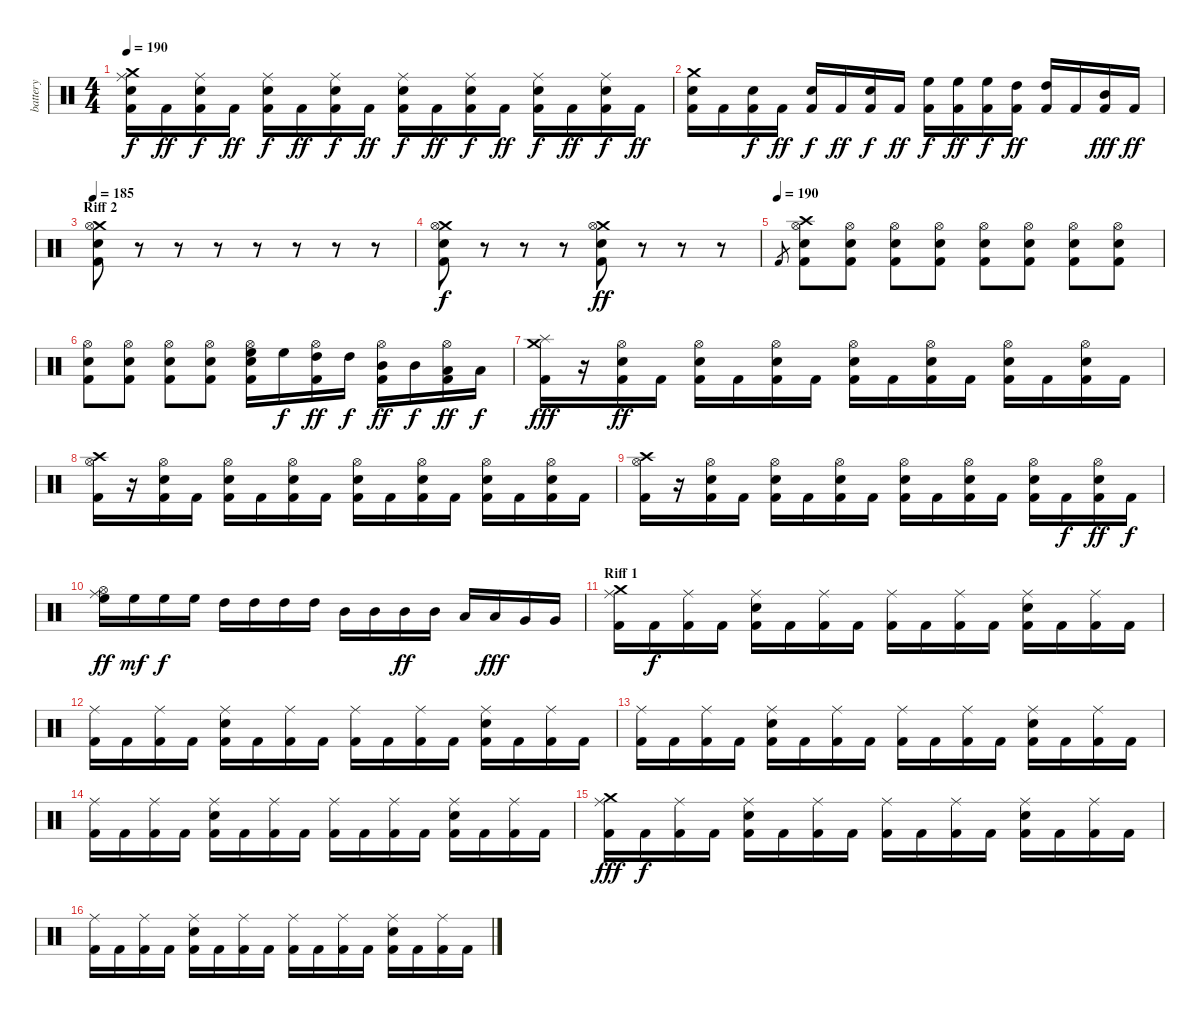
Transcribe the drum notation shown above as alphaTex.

\track ("battery" "battery") {instrument percussion}
\staff {score}
\articulation defaults
\ts (4 4)
\tempo 190
\clef neutral
\ks c
("Kick (hit) 2" "Electric Snare (hit)" "Crash medium (hit)" "Ride (middle)").16{dy f} "Kick (hit) 2".16{dy ff} ("Kick (hit) 2" "Electric Snare (hit)" "Ride (middle)").16{dy f} "Kick (hit) 2".16{dy ff} ("Kick (hit) 2" "Electric Snare (hit)" "Ride (middle)").16{dy f} "Kick (hit) 2".16{dy ff} ("Kick (hit) 2" "Electric Snare (hit)" "Ride (middle)").16{dy f} "Kick (hit) 2".16{dy ff} ("Kick (hit) 2" "Electric Snare (hit)" "Ride (middle)").16{dy f} "Kick (hit) 2".16{dy ff} ("Kick (hit) 2" "Electric Snare (hit)" "Ride (middle)").16{dy f} "Kick (hit) 2".16{dy ff} ("Kick (hit) 2" "Electric Snare (hit)" "Ride (middle)").16{dy f} "Kick (hit) 2".16{dy ff} ("Kick (hit) 2" "Electric Snare (hit)" "Ride (middle)").16{dy f} "Kick (hit) 2".16{dy ff} |
("Kick (hit) 2" "Electric Snare (hit)" "Crash medium (hit)").16 "Kick (hit) 2".16 ("Kick (hit) 2" "Electric Snare (hit)").16{dy f} "Kick (hit) 2".16{dy ff} ("Kick (hit) 2" "Electric Snare (hit)").16{dy f} "Kick (hit) 2".16{dy ff} ("Kick (hit) 2" "Electric Snare (hit)").16{dy f} "Kick (hit) 2".16{dy ff} ("Kick (hit) 2" "High Floor Tom (hit)").16{dy f} ("Kick (hit) 2" "High Floor Tom (hit)").16{dy ff} ("Kick (hit) 2" "High Floor Tom (hit)").16{dy f} ("Kick (hit) 2" "High Tom (hit)").16{dy ff} ("Kick (hit) 2" "High Tom (hit)").16 "Kick (hit) 2".16 ("Kick (hit) 2" "Mid Tom (hit)").16{dy fff} "Kick (hit) 2".16{dy ff} |
\section ("" "Riff 2")
\tempo 185
("Kick (hit) 2" "Electric Snare (hit)" "Crash medium (hit)" "Hi-Hat (open)").8 r.8 r.8 r.8 r.8 r.8 r.8 r.8 |
("Kick (hit) 2" "Electric Snare (hit)" "Crash medium (hit)" "Hi-Hat (open)").8{dy f} r.8 r.8 r.8 ("Kick (hit) 2" "Electric Snare (hit)" "Crash medium (hit)" "Hi-Hat (open)").8{dy ff} r.8 r.8 r.8 |
\tempo (190)
"Kick (hit) 2".8{gr} ("Kick (hit) 2" "Electric Snare (hit)" "Crash high (hit)" "Hi-Hat (open)").8 ("Kick (hit) 2" "Electric Snare (hit)" "Hi-Hat (open)").8 ("Kick (hit) 2" "Electric Snare (hit)" "Hi-Hat (open)").8 ("Kick (hit) 2" "Electric Snare (hit)" "Hi-Hat (open)").8 ("Kick (hit) 2" "Electric Snare (hit)" "Hi-Hat (open)").8 ("Kick (hit) 2" "Electric Snare (hit)" "Hi-Hat (open)").8 ("Kick (hit) 2" "Electric Snare (hit)" "Hi-Hat (open)").8 ("Kick (hit) 2" "Electric Snare (hit)" "Hi-Hat (open)").8 |
("Kick (hit) 2" "Electric Snare (hit)" "Hi-Hat (open)").8 ("Kick (hit) 2" "Electric Snare (hit)" "Hi-Hat (open)").8 ("Kick (hit) 2" "Electric Snare (hit)" "Hi-Hat (open)").8 ("Kick (hit) 2" "Electric Snare (hit)" "Hi-Hat (open)").8 ("Kick (hit) 2" "Electric Snare (hit)" "Hi-Hat (open)" "High Floor Tom (hit)").16 "High Floor Tom (hit)".16{dy f} ("Kick (hit) 2" "Hi-Hat (open)" "High Tom (hit)").16{dy ff} "High Tom (hit)".16{dy f} ("Kick (hit) 2" "Hi-Hat (open)" "Mid Tom (hit)").16{dy ff} "Mid Tom (hit)".16{dy f} ("Kick (hit) 2" "Hi-Hat (open)" "Low Tom (hit)").16{dy ff} "Low Tom (hit)".16{dy f} |
("Kick (hit) 2" "Crash medium (hit)" "Splash (hit)").16{dy fff} r.16 ("Kick (hit) 2" "Electric Snare (hit)" "Hi-Hat (open)").16{dy ff} "Kick (hit) 2".16 ("Kick (hit) 2" "Electric Snare (hit)" "Hi-Hat (open)").16 "Kick (hit) 2".16 ("Kick (hit) 2" "Electric Snare (hit)" "Hi-Hat (open)").16 "Kick (hit) 2".16 ("Kick (hit) 2" "Electric Snare (hit)" "Hi-Hat (open)").16 "Kick (hit) 2".16 ("Kick (hit) 2" "Electric Snare (hit)" "Hi-Hat (open)").16 "Kick (hit) 2".16 ("Kick (hit) 2" "Electric Snare (hit)" "Hi-Hat (open)").16 "Kick (hit) 2".16 ("Kick (hit) 2" "Electric Snare (hit)" "Hi-Hat (open)").16 "Kick (hit) 2".16 |
("Kick (hit) 2" "Crash high (hit)" "Hi-Hat (open)").16 r.16 ("Kick (hit) 2" "Electric Snare (hit)" "Hi-Hat (open)").16 "Kick (hit) 2".16 ("Kick (hit) 2" "Electric Snare (hit)" "Hi-Hat (open)").16 "Kick (hit) 2".16 ("Kick (hit) 2" "Electric Snare (hit)" "Hi-Hat (open)").16 "Kick (hit) 2".16 ("Kick (hit) 2" "Electric Snare (hit)" "Hi-Hat (open)").16 "Kick (hit) 2".16 ("Kick (hit) 2" "Electric Snare (hit)" "Hi-Hat (open)").16 "Kick (hit) 2".16 ("Kick (hit) 2" "Electric Snare (hit)" "Hi-Hat (open)").16 "Kick (hit) 2".16 ("Kick (hit) 2" "Electric Snare (hit)" "Hi-Hat (open)").16 "Kick (hit) 2".16 |
("Kick (hit) 2" "Crash high (hit)" "Hi-Hat (open)").16 r.16 ("Kick (hit) 2" "Electric Snare (hit)" "Hi-Hat (open)").16 "Kick (hit) 2".16 ("Kick (hit) 2" "Electric Snare (hit)" "Hi-Hat (open)").16 "Kick (hit) 2".16 ("Kick (hit) 2" "Electric Snare (hit)" "Hi-Hat (open)").16 "Kick (hit) 2".16 ("Kick (hit) 2" "Electric Snare (hit)" "Hi-Hat (open)").16 "Kick (hit) 2".16 ("Kick (hit) 2" "Electric Snare (hit)" "Hi-Hat (open)").16 "Kick (hit) 2".16 ("Kick (hit) 2" "Electric Snare (hit)" "Hi-Hat (open)").16 "Kick (hit) 2".16{dy f} ("Kick (hit) 2" "Electric Snare (hit)" "Hi-Hat (open)").16{dy ff} "Kick (hit) 2".16{dy f} |
("High Floor Tom (hit)" "Ride (middle)" "Hi-Hat (open)").16{dy ff} "High Floor Tom (hit)".16{dy mf} "High Floor Tom (hit)".16{dy f} "High Floor Tom (hit)".16 "High Tom (hit)".16 "High Tom (hit)".16 "High Tom (hit)".16 "High Tom (hit)".16 "Mid Tom (hit)".16 "Mid Tom (hit)".16 "Mid Tom (hit)".16{dy ff} "Mid Tom (hit)".16 "Low Tom (hit)".16 "Low Tom (hit)".16{dy fff} "Very Low Tom (hit)".16 "Very Low Tom (hit)".16 |
\section ("" "Riff 1")
("Kick (hit) 2" "Crash medium (hit)" "Ride (middle)").16 "Kick (hit) 2".16{dy f} ("Kick (hit) 2" "Ride (middle)").16 "Kick (hit) 2".16 ("Kick (hit) 2" "Electric Snare (hit)" "Ride (middle)").16 "Kick (hit) 2".16 ("Kick (hit) 2" "Ride (middle)").16 "Kick (hit) 2".16 ("Kick (hit) 2" "Ride (middle)").16 "Kick (hit) 2".16 ("Kick (hit) 2" "Ride (middle)").16 "Kick (hit) 2".16 ("Kick (hit) 2" "Electric Snare (hit)" "Ride (middle)").16 "Kick (hit) 2".16 ("Kick (hit) 2" "Ride (middle)").16 "Kick (hit) 2".16 |
("Kick (hit) 2" "Ride (middle)").16 "Kick (hit) 2".16 ("Kick (hit) 2" "Ride (middle)").16 "Kick (hit) 2".16 ("Kick (hit) 2" "Electric Snare (hit)" "Ride (middle)").16 "Kick (hit) 2".16 ("Kick (hit) 2" "Ride (middle)").16 "Kick (hit) 2".16 ("Kick (hit) 2" "Ride (middle)").16 "Kick (hit) 2".16 ("Kick (hit) 2" "Ride (middle)").16 "Kick (hit) 2".16 ("Kick (hit) 2" "Electric Snare (hit)" "Ride (middle)").16 "Kick (hit) 2".16 ("Kick (hit) 2" "Ride (middle)").16 "Kick (hit) 2".16 |
("Kick (hit) 2" "Ride (middle)").16 "Kick (hit) 2".16 ("Kick (hit) 2" "Ride (middle)").16 "Kick (hit) 2".16 ("Kick (hit) 2" "Electric Snare (hit)" "Ride (middle)").16 "Kick (hit) 2".16 ("Kick (hit) 2" "Ride (middle)").16 "Kick (hit) 2".16 ("Kick (hit) 2" "Ride (middle)").16 "Kick (hit) 2".16 ("Kick (hit) 2" "Ride (middle)").16 "Kick (hit) 2".16 ("Kick (hit) 2" "Electric Snare (hit)" "Ride (middle)").16 "Kick (hit) 2".16 ("Kick (hit) 2" "Ride (middle)").16 "Kick (hit) 2".16 |
("Kick (hit) 2" "Ride (middle)").16 "Kick (hit) 2".16 ("Kick (hit) 2" "Ride (middle)").16 "Kick (hit) 2".16 ("Kick (hit) 2" "Electric Snare (hit)" "Ride (middle)").16 "Kick (hit) 2".16 ("Kick (hit) 2" "Ride (middle)").16 "Kick (hit) 2".16 ("Kick (hit) 2" "Ride (middle)").16 "Kick (hit) 2".16 ("Kick (hit) 2" "Ride (middle)").16 "Kick (hit) 2".16 ("Kick (hit) 2" "Electric Snare (hit)" "Ride (middle)").16 "Kick (hit) 2".16 ("Kick (hit) 2" "Ride (middle)").16 "Kick (hit) 2".16 |
("Kick (hit) 2" "Crash medium (hit)" "Ride (middle)").16{dy fff} "Kick (hit) 2".16{dy f} ("Kick (hit) 2" "Ride (middle)").16 "Kick (hit) 2".16 ("Kick (hit) 2" "Electric Snare (hit)" "Ride (middle)").16 "Kick (hit) 2".16 ("Kick (hit) 2" "Ride (middle)").16 "Kick (hit) 2".16 ("Kick (hit) 2" "Ride (middle)").16 "Kick (hit) 2".16 ("Kick (hit) 2" "Ride (middle)").16 "Kick (hit) 2".16 ("Kick (hit) 2" "Electric Snare (hit)" "Ride (middle)").16 "Kick (hit) 2".16 ("Kick (hit) 2" "Ride (middle)").16 "Kick (hit) 2".16 |
("Kick (hit) 2" "Ride (middle)").16 "Kick (hit) 2".16 ("Kick (hit) 2" "Ride (middle)").16 "Kick (hit) 2".16 ("Kick (hit) 2" "Electric Snare (hit)" "Ride (middle)").16 "Kick (hit) 2".16 ("Kick (hit) 2" "Ride (middle)").16 "Kick (hit) 2".16 ("Kick (hit) 2" "Ride (middle)").16 "Kick (hit) 2".16 ("Kick (hit) 2" "Ride (middle)").16 "Kick (hit) 2".16 ("Kick (hit) 2" "Electric Snare (hit)" "Ride (middle)").16 "Kick (hit) 2".16 ("Kick (hit) 2" "Ride (middle)").16 "Kick (hit) 2".16
